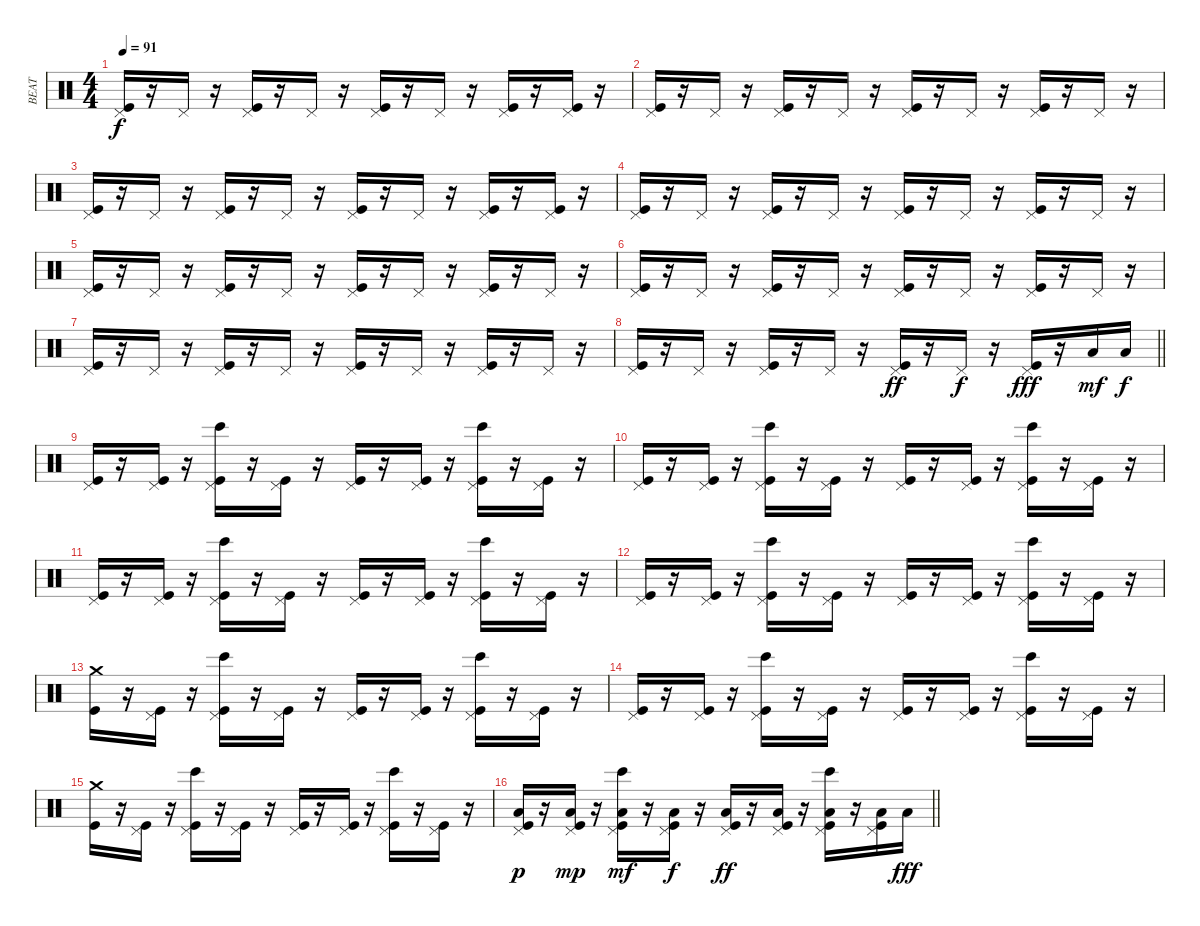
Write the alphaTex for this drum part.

\track ("BEAT" "BEAT") {instrument percussion}
\staff {score}
\articulation defaults
\ts (4 4)
\section ("" "")
\tempo 91
\clef neutral
\ks c
("Pedal Hi-Hat (hit)" "Kick (hit)").16{dy f} r.16 "Pedal Hi-Hat (hit)".16 r.16 ("Pedal Hi-Hat (hit)" "Kick (hit)").16 r.16 "Pedal Hi-Hat (hit)".16 r.16 ("Pedal Hi-Hat (hit)" "Kick (hit)").16 r.16 "Pedal Hi-Hat (hit)".16 r.16 ("Pedal Hi-Hat (hit)" "Kick (hit)").16 r.16 ("Pedal Hi-Hat (hit)" "Kick (hit)").16 r.16 |
("Pedal Hi-Hat (hit)" "Kick (hit)").16 r.16 "Pedal Hi-Hat (hit)".16 r.16 ("Pedal Hi-Hat (hit)" "Kick (hit)").16 r.16 "Pedal Hi-Hat (hit)".16 r.16 ("Pedal Hi-Hat (hit)" "Kick (hit)").16 r.16 "Pedal Hi-Hat (hit)".16 r.16 ("Pedal Hi-Hat (hit)" "Kick (hit)").16 r.16 "Pedal Hi-Hat (hit)".16 r.16 |
("Pedal Hi-Hat (hit)" "Kick (hit)").16 r.16 "Pedal Hi-Hat (hit)".16 r.16 ("Pedal Hi-Hat (hit)" "Kick (hit)").16 r.16 "Pedal Hi-Hat (hit)".16 r.16 ("Pedal Hi-Hat (hit)" "Kick (hit)").16 r.16 "Pedal Hi-Hat (hit)".16 r.16 ("Pedal Hi-Hat (hit)" "Kick (hit)").16 r.16 ("Pedal Hi-Hat (hit)" "Kick (hit)").16 r.16 |
("Pedal Hi-Hat (hit)" "Kick (hit)").16 r.16 "Pedal Hi-Hat (hit)".16 r.16 ("Pedal Hi-Hat (hit)" "Kick (hit)").16 r.16 "Pedal Hi-Hat (hit)".16 r.16 ("Pedal Hi-Hat (hit)" "Kick (hit)").16 r.16 "Pedal Hi-Hat (hit)".16 r.16 ("Pedal Hi-Hat (hit)" "Kick (hit)").16 r.16 "Pedal Hi-Hat (hit)".16 r.16 |
("Pedal Hi-Hat (hit)" "Kick (hit)").16 r.16 "Pedal Hi-Hat (hit)".16 r.16 ("Pedal Hi-Hat (hit)" "Kick (hit)").16 r.16 "Pedal Hi-Hat (hit)".16 r.16 ("Pedal Hi-Hat (hit)" "Kick (hit)").16 r.16 "Pedal Hi-Hat (hit)".16 r.16 ("Pedal Hi-Hat (hit)" "Kick (hit)").16 r.16 "Pedal Hi-Hat (hit)".16 r.16 |
("Pedal Hi-Hat (hit)" "Kick (hit)").16 r.16 "Pedal Hi-Hat (hit)".16 r.16 ("Pedal Hi-Hat (hit)" "Kick (hit)").16 r.16 "Pedal Hi-Hat (hit)".16 r.16 ("Pedal Hi-Hat (hit)" "Kick (hit)").16 r.16 "Pedal Hi-Hat (hit)".16 r.16 ("Pedal Hi-Hat (hit)" "Kick (hit)").16 r.16 "Pedal Hi-Hat (hit)".16 r.16 |
("Pedal Hi-Hat (hit)" "Kick (hit)").16 r.16 "Pedal Hi-Hat (hit)".16 r.16 ("Pedal Hi-Hat (hit)" "Kick (hit)").16 r.16 "Pedal Hi-Hat (hit)".16 r.16 ("Pedal Hi-Hat (hit)" "Kick (hit)").16 r.16 "Pedal Hi-Hat (hit)".16 r.16 ("Pedal Hi-Hat (hit)" "Kick (hit)").16 r.16 "Pedal Hi-Hat (hit)".16 r.16 |
\barLineRight lightlight
("Pedal Hi-Hat (hit)" "Kick (hit)").16 r.16 "Pedal Hi-Hat (hit)".16 r.16 ("Pedal Hi-Hat (hit)" "Kick (hit)").16 r.16 "Pedal Hi-Hat (hit)".16 r.16 ("Pedal Hi-Hat (hit)" "Kick (hit)").16{dy ff} r.16 "Pedal Hi-Hat (hit)".16{dy f} r.16 ("Pedal Hi-Hat (hit)" "Kick (hit)").16{dy fff} r.16 "Low Tom (hit)".16{dy mf} "Low Tom (hit)".16{dy f} |
\section ("" "")
("Pedal Hi-Hat (hit)" "Kick (hit)").16 r.16 ("Pedal Hi-Hat (hit)" "Kick (hit)").16 r.16 ("Pedal Hi-Hat (hit)" "Bongo High (hit)" "Kick (hit)").16 r.16 ("Pedal Hi-Hat (hit)" "Kick (hit)").16 r.16 ("Pedal Hi-Hat (hit)" "Kick (hit)").16 r.16 ("Pedal Hi-Hat (hit)" "Kick (hit)").16 r.16 ("Pedal Hi-Hat (hit)" "Bongo High (hit)" "Kick (hit)").16 r.16 ("Pedal Hi-Hat (hit)" "Kick (hit)").16 r.16 |
("Pedal Hi-Hat (hit)" "Kick (hit)").16 r.16 ("Pedal Hi-Hat (hit)" "Kick (hit)").16 r.16 ("Pedal Hi-Hat (hit)" "Bongo High (hit)" "Kick (hit)").16 r.16 ("Pedal Hi-Hat (hit)" "Kick (hit)").16 r.16 ("Pedal Hi-Hat (hit)" "Kick (hit)").16 r.16 ("Pedal Hi-Hat (hit)" "Kick (hit)").16 r.16 ("Pedal Hi-Hat (hit)" "Bongo High (hit)" "Kick (hit)").16 r.16 ("Pedal Hi-Hat (hit)" "Kick (hit)").16 r.16 |
("Pedal Hi-Hat (hit)" "Kick (hit)").16 r.16 ("Pedal Hi-Hat (hit)" "Kick (hit)").16 r.16 ("Pedal Hi-Hat (hit)" "Bongo High (hit)" "Kick (hit)").16 r.16 ("Pedal Hi-Hat (hit)" "Kick (hit)").16 r.16 ("Pedal Hi-Hat (hit)" "Kick (hit)").16 r.16 ("Pedal Hi-Hat (hit)" "Kick (hit)").16 r.16 ("Pedal Hi-Hat (hit)" "Bongo High (hit)" "Kick (hit)").16 r.16 ("Pedal Hi-Hat (hit)" "Kick (hit)").16 r.16 |
("Pedal Hi-Hat (hit)" "Kick (hit)").16 r.16 ("Pedal Hi-Hat (hit)" "Kick (hit)").16 r.16 ("Pedal Hi-Hat (hit)" "Bongo High (hit)" "Kick (hit)").16 r.16 ("Pedal Hi-Hat (hit)" "Kick (hit)").16 r.16 ("Pedal Hi-Hat (hit)" "Kick (hit)").16 r.16 ("Pedal Hi-Hat (hit)" "Kick (hit)").16 r.16 ("Pedal Hi-Hat (hit)" "Bongo High (hit)" "Kick (hit)").16 r.16 ("Pedal Hi-Hat (hit)" "Kick (hit)").16 r.16 |
("Crash medium (hit)" "Kick (hit)").16 r.16 ("Pedal Hi-Hat (hit)" "Kick (hit)").16 r.16 ("Pedal Hi-Hat (hit)" "Bongo High (hit)" "Kick (hit)").16 r.16 ("Pedal Hi-Hat (hit)" "Kick (hit)").16 r.16 ("Pedal Hi-Hat (hit)" "Kick (hit)").16 r.16 ("Pedal Hi-Hat (hit)" "Kick (hit)").16 r.16 ("Pedal Hi-Hat (hit)" "Bongo High (hit)" "Kick (hit)").16 r.16 ("Pedal Hi-Hat (hit)" "Kick (hit)").16 r.16 |
("Pedal Hi-Hat (hit)" "Kick (hit)").16 r.16 ("Pedal Hi-Hat (hit)" "Kick (hit)").16 r.16 ("Pedal Hi-Hat (hit)" "Bongo High (hit)" "Kick (hit)").16 r.16 ("Pedal Hi-Hat (hit)" "Kick (hit)").16 r.16 ("Pedal Hi-Hat (hit)" "Kick (hit)").16 r.16 ("Pedal Hi-Hat (hit)" "Kick (hit)").16 r.16 ("Pedal Hi-Hat (hit)" "Bongo High (hit)" "Kick (hit)").16 r.16 ("Pedal Hi-Hat (hit)" "Kick (hit)").16 r.16 |
("Crash medium (hit)" "Kick (hit)").16 r.16 ("Pedal Hi-Hat (hit)" "Kick (hit)").16 r.16 ("Pedal Hi-Hat (hit)" "Bongo High (hit)" "Kick (hit)").16 r.16 ("Pedal Hi-Hat (hit)" "Kick (hit)").16 r.16 ("Pedal Hi-Hat (hit)" "Kick (hit)").16 r.16 ("Pedal Hi-Hat (hit)" "Kick (hit)").16 r.16 ("Pedal Hi-Hat (hit)" "Bongo High (hit)" "Kick (hit)").16 r.16 ("Pedal Hi-Hat (hit)" "Kick (hit)").16 r.16 |
\barLineRight lightlight
("Pedal Hi-Hat (hit)" "Low Tom (hit)" "Kick (hit)").16{dy p} r.16 ("Pedal Hi-Hat (hit)" "Low Tom (hit)" "Kick (hit)").16{dy mp} r.16 ("Pedal Hi-Hat (hit)" "Bongo High (hit)" "Low Tom (hit)" "Kick (hit)").16{dy mf} r.16 ("Pedal Hi-Hat (hit)" "Low Tom (hit)" "Kick (hit)").16{dy f} r.16 ("Pedal Hi-Hat (hit)" "Low Tom (hit)" "Kick (hit)").16{dy ff} r.16 ("Pedal Hi-Hat (hit)" "Low Tom (hit)" "Kick (hit)").16 r.16 ("Pedal Hi-Hat (hit)" "Bongo High (hit)" "Low Tom (hit)" "Kick (hit)").16 r.16 ("Pedal Hi-Hat (hit)" "Low Tom (hit)" "Kick (hit)").16 "Low Tom (hit)".16{dy fff}
